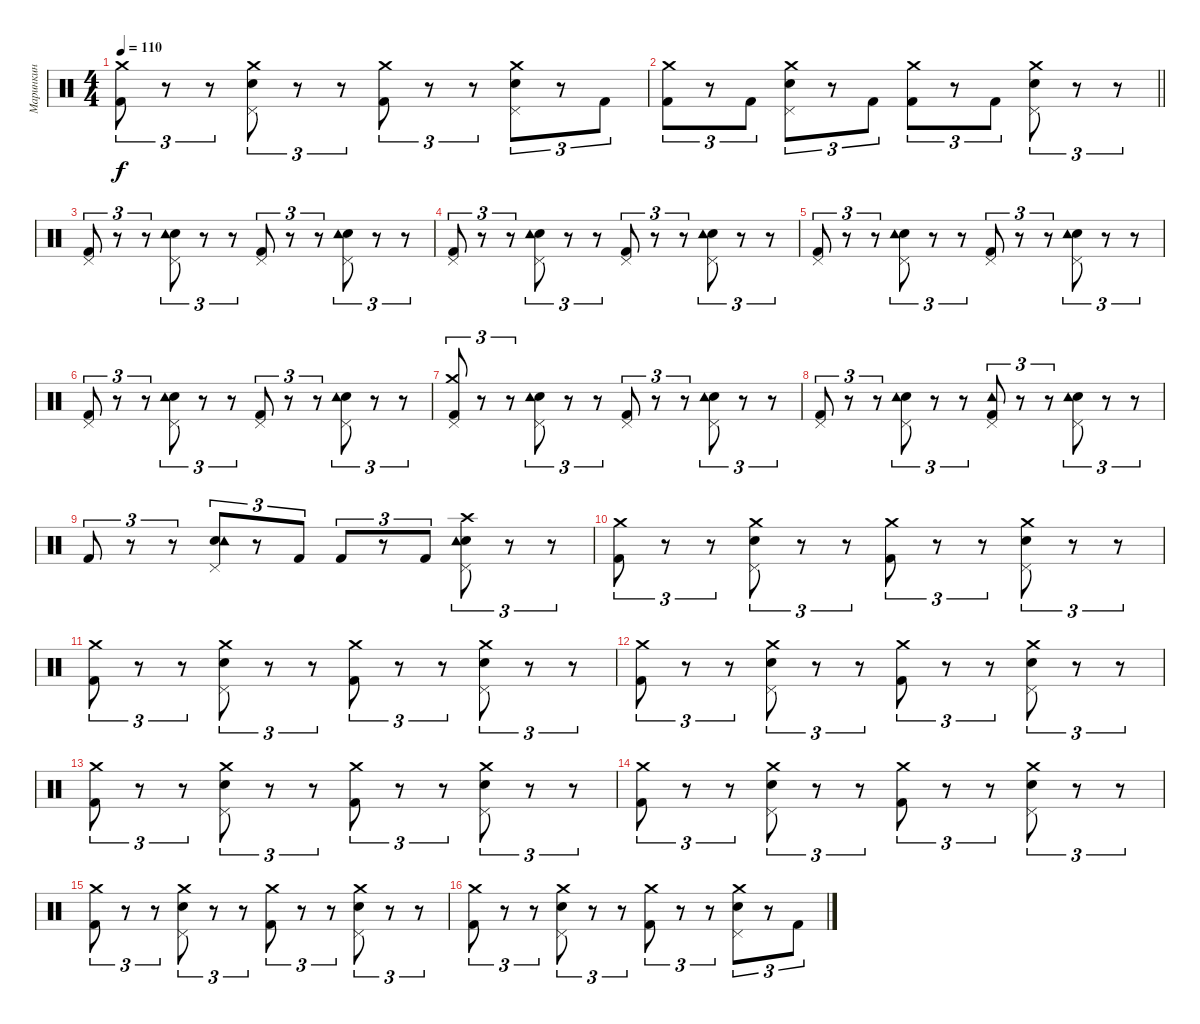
\track ("Маринкин " "Маринкин ") {instrument percussion}
\staff {score}
\articulation defaults
\ts (4 4)
\tempo 110
\clef neutral
\ks c
("Kick (hit) 2" "Crash medium (hit)").8{tu (3 2) dy f} r.8{tu (3 2)} r.8{tu (3 2)} ("Snare (hit) 2" "Crash medium (hit)" "Pedal Hi-Hat (hit)").8{tu (3 2)} r.8{tu (3 2)} r.8{tu (3 2)} ("Kick (hit) 2" "Crash medium (hit)").8{tu (3 2)} r.8{tu (3 2)} r.8{tu (3 2)} ("Snare (hit) 2" "Crash medium (hit)" "Pedal Hi-Hat (hit)").8{tu (3 2)} r.8{tu (3 2)} "Kick (hit) 2".8{tu (3 2)} |
\barLineRight lightlight
("Kick (hit) 2" "Crash medium (hit)").8{tu (3 2)} r.8{tu (3 2)} "Kick (hit) 2".8{tu (3 2)} ("Snare (hit) 2" "Crash medium (hit)" "Pedal Hi-Hat (hit)").8{tu (3 2)} r.8{tu (3 2)} "Kick (hit) 2".8{tu (3 2)} ("Kick (hit) 2" "Crash medium (hit)").8{tu (3 2)} r.8{tu (3 2)} "Kick (hit) 2".8{tu (3 2)} ("Snare (hit) 2" "Crash medium (hit)" "Pedal Hi-Hat (hit)").8{tu (3 2)} r.8{tu (3 2)} r.8{tu (3 2)} |
("Kick (hit) 2" "Pedal Hi-Hat (hit)").8{tu (3 2)} r.8{tu (3 2)} r.8{tu (3 2)} ("Snare (hit) 2" "Tambourine (hit)" "Pedal Hi-Hat (hit)").8{tu (3 2)} r.8{tu (3 2)} r.8{tu (3 2)} ("Kick (hit) 2" "Pedal Hi-Hat (hit)").8{tu (3 2)} r.8{tu (3 2)} r.8{tu (3 2)} ("Snare (hit) 2" "Tambourine (hit)" "Pedal Hi-Hat (hit)").8{tu (3 2)} r.8{tu (3 2)} r.8{tu (3 2)} |
("Kick (hit) 2" "Pedal Hi-Hat (hit)").8{tu (3 2)} r.8{tu (3 2)} r.8{tu (3 2)} ("Snare (hit) 2" "Tambourine (hit)" "Pedal Hi-Hat (hit)").8{tu (3 2)} r.8{tu (3 2)} r.8{tu (3 2)} ("Kick (hit) 2" "Pedal Hi-Hat (hit)").8{tu (3 2)} r.8{tu (3 2)} r.8{tu (3 2)} ("Snare (hit) 2" "Tambourine (hit)" "Pedal Hi-Hat (hit)").8{tu (3 2)} r.8{tu (3 2)} r.8{tu (3 2)} |
("Kick (hit) 2" "Pedal Hi-Hat (hit)").8{tu (3 2)} r.8{tu (3 2)} r.8{tu (3 2)} ("Snare (hit) 2" "Tambourine (hit)" "Pedal Hi-Hat (hit)").8{tu (3 2)} r.8{tu (3 2)} r.8{tu (3 2)} ("Kick (hit) 2" "Pedal Hi-Hat (hit)").8{tu (3 2)} r.8{tu (3 2)} r.8{tu (3 2)} ("Snare (hit) 2" "Tambourine (hit)" "Pedal Hi-Hat (hit)").8{tu (3 2)} r.8{tu (3 2)} r.8{tu (3 2)} |
("Kick (hit) 2" "Pedal Hi-Hat (hit)").8{tu (3 2)} r.8{tu (3 2)} r.8{tu (3 2)} ("Snare (hit) 2" "Tambourine (hit)" "Pedal Hi-Hat (hit)").8{tu (3 2)} r.8{tu (3 2)} r.8{tu (3 2)} ("Kick (hit) 2" "Pedal Hi-Hat (hit)").8{tu (3 2)} r.8{tu (3 2)} r.8{tu (3 2)} ("Snare (hit) 2" "Tambourine (hit)" "Pedal Hi-Hat (hit)").8{tu (3 2)} r.8{tu (3 2)} r.8{tu (3 2)} |
("Kick (hit) 2" "Crash medium (hit)" "Pedal Hi-Hat (hit)").8{tu (3 2)} r.8{tu (3 2)} r.8{tu (3 2)} ("Snare (hit) 2" "Tambourine (hit)" "Pedal Hi-Hat (hit)").8{tu (3 2)} r.8{tu (3 2)} r.8{tu (3 2)} ("Kick (hit) 2" "Pedal Hi-Hat (hit)").8{tu (3 2)} r.8{tu (3 2)} r.8{tu (3 2)} ("Snare (hit) 2" "Tambourine (hit)" "Pedal Hi-Hat (hit)").8{tu (3 2)} r.8{tu (3 2)} r.8{tu (3 2)} |
("Kick (hit) 2" "Pedal Hi-Hat (hit)").8{tu (3 2)} r.8{tu (3 2)} r.8{tu (3 2)} ("Snare (hit) 2" "Tambourine (hit)" "Pedal Hi-Hat (hit)").8{tu (3 2)} r.8{tu (3 2)} r.8{tu (3 2)} ("Kick (hit) 2" "Tambourine (hit)" "Pedal Hi-Hat (hit)").8{tu (3 2)} r.8{tu (3 2)} r.8{tu (3 2)} ("Snare (hit) 2" "Tambourine (hit)" "Pedal Hi-Hat (hit)").8{tu (3 2)} r.8{tu (3 2)} r.8{tu (3 2)} |
"Kick (hit) 2".8{tu (3 2)} r.8{tu (3 2)} r.8{tu (3 2)} ("Snare (hit) 2" "Tambourine (hit)" "Pedal Hi-Hat (hit)").8{tu (3 2)} r.8{tu (3 2)} "Kick (hit) 2".8{tu (3 2)} "Kick (hit) 2".8{tu (3 2)} r.8{tu (3 2)} "Kick (hit) 2".8{tu (3 2)} ("Snare (hit) 2" "Tambourine (hit)" "Pedal Hi-Hat (hit)" "Crash high (hit)").8{tu (3 2)} r.8{tu (3 2)} r.8{tu (3 2)} |
("Kick (hit) 2" "Crash medium (hit)").8{tu (3 2)} r.8{tu (3 2)} r.8{tu (3 2)} ("Snare (hit) 2" "Crash medium (hit)" "Pedal Hi-Hat (hit)").8{tu (3 2)} r.8{tu (3 2)} r.8{tu (3 2)} ("Kick (hit) 2" "Crash medium (hit)").8{tu (3 2)} r.8{tu (3 2)} r.8{tu (3 2)} ("Snare (hit) 2" "Crash medium (hit)" "Pedal Hi-Hat (hit)").8{tu (3 2)} r.8{tu (3 2)} r.8{tu (3 2)} |
("Kick (hit) 2" "Crash medium (hit)").8{tu (3 2)} r.8{tu (3 2)} r.8{tu (3 2)} ("Snare (hit) 2" "Crash medium (hit)" "Pedal Hi-Hat (hit)").8{tu (3 2)} r.8{tu (3 2)} r.8{tu (3 2)} ("Kick (hit) 2" "Crash medium (hit)").8{tu (3 2)} r.8{tu (3 2)} r.8{tu (3 2)} ("Snare (hit) 2" "Crash medium (hit)" "Pedal Hi-Hat (hit)").8{tu (3 2)} r.8{tu (3 2)} r.8{tu (3 2)} |
("Kick (hit) 2" "Crash medium (hit)").8{tu (3 2)} r.8{tu (3 2)} r.8{tu (3 2)} ("Snare (hit) 2" "Crash medium (hit)" "Pedal Hi-Hat (hit)").8{tu (3 2)} r.8{tu (3 2)} r.8{tu (3 2)} ("Kick (hit) 2" "Crash medium (hit)").8{tu (3 2)} r.8{tu (3 2)} r.8{tu (3 2)} ("Snare (hit) 2" "Crash medium (hit)" "Pedal Hi-Hat (hit)").8{tu (3 2)} r.8{tu (3 2)} r.8{tu (3 2)} |
("Kick (hit) 2" "Crash medium (hit)").8{tu (3 2)} r.8{tu (3 2)} r.8{tu (3 2)} ("Snare (hit) 2" "Crash medium (hit)" "Pedal Hi-Hat (hit)").8{tu (3 2)} r.8{tu (3 2)} r.8{tu (3 2)} ("Kick (hit) 2" "Crash medium (hit)").8{tu (3 2)} r.8{tu (3 2)} r.8{tu (3 2)} ("Snare (hit) 2" "Crash medium (hit)" "Pedal Hi-Hat (hit)").8{tu (3 2)} r.8{tu (3 2)} r.8{tu (3 2)} |
("Kick (hit) 2" "Crash medium (hit)").8{tu (3 2)} r.8{tu (3 2)} r.8{tu (3 2)} ("Snare (hit) 2" "Crash medium (hit)" "Pedal Hi-Hat (hit)").8{tu (3 2)} r.8{tu (3 2)} r.8{tu (3 2)} ("Kick (hit) 2" "Crash medium (hit)").8{tu (3 2)} r.8{tu (3 2)} r.8{tu (3 2)} ("Snare (hit) 2" "Crash medium (hit)" "Pedal Hi-Hat (hit)").8{tu (3 2)} r.8{tu (3 2)} r.8{tu (3 2)} |
("Kick (hit) 2" "Crash medium (hit)").8{tu (3 2)} r.8{tu (3 2)} r.8{tu (3 2)} ("Snare (hit) 2" "Crash medium (hit)" "Pedal Hi-Hat (hit)").8{tu (3 2)} r.8{tu (3 2)} r.8{tu (3 2)} ("Kick (hit) 2" "Crash medium (hit)").8{tu (3 2)} r.8{tu (3 2)} r.8{tu (3 2)} ("Snare (hit) 2" "Crash medium (hit)" "Pedal Hi-Hat (hit)").8{tu (3 2)} r.8{tu (3 2)} r.8{tu (3 2)} |
("Kick (hit) 2" "Crash medium (hit)").8{tu (3 2)} r.8{tu (3 2)} r.8{tu (3 2)} ("Snare (hit) 2" "Crash medium (hit)" "Pedal Hi-Hat (hit)").8{tu (3 2)} r.8{tu (3 2)} r.8{tu (3 2)} ("Kick (hit) 2" "Crash medium (hit)").8{tu (3 2)} r.8{tu (3 2)} r.8{tu (3 2)} ("Snare (hit) 2" "Crash medium (hit)" "Pedal Hi-Hat (hit)").8{tu (3 2)} r.8{tu (3 2)} "Kick (hit) 2".8{tu (3 2)}
